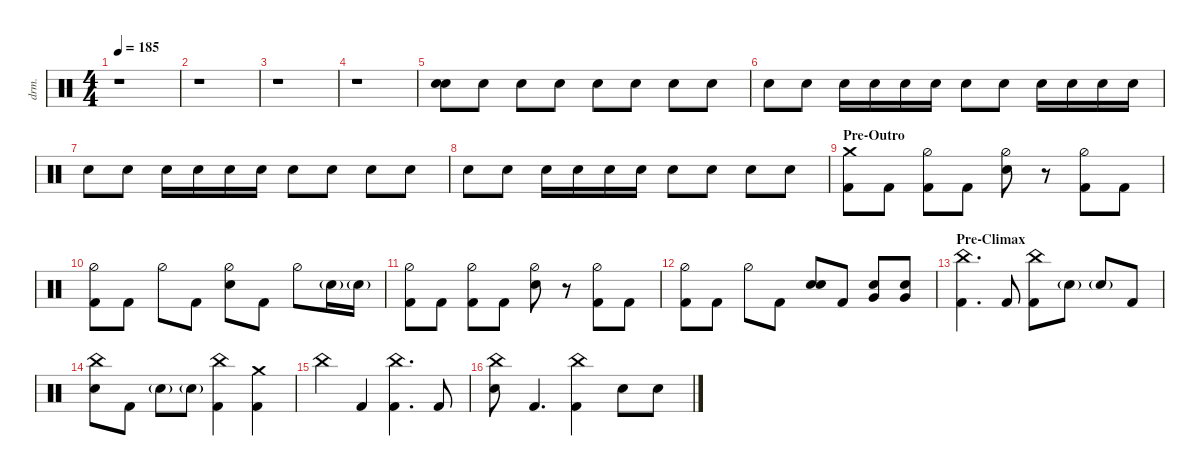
\defaultSystemsLayout 4
\hideDynamics
\bracketExtendMode nobrackets
\track ("Drums - Šimon" "drm.") {instrument percussion}
\staff {score}
\articulation defaults
\ts (4 4)
\tempo 185
\clef neutral
\ks c
r.1{dy ff} |
r.1 |
r.1 |
r.1 |
("Snare (hit) 2" "Snare (hit) 2").8{dy mf} "Snare (hit) 2".8{dy mp} "Snare (hit) 2".8 "Snare (hit) 2".8 "Snare (hit) 2".8 "Snare (hit) 2".8 "Snare (hit) 2".8 "Snare (hit) 2".8 |
"Snare (hit) 2".8 "Snare (hit) 2".8 "Snare (hit) 2".16 "Snare (hit) 2".16{dy p} "Snare (hit) 2".16 "Snare (hit) 2".16 "Snare (hit) 2".8{dy mp} "Snare (hit) 2".8 "Snare (hit) 2".16 "Snare (hit) 2".16{dy p} "Snare (hit) 2".16 "Snare (hit) 2".16 |
"Snare (hit) 2".8{dy mp} "Snare (hit) 2".8 "Snare (hit) 2".16 "Snare (hit) 2".16{dy p} "Snare (hit) 2".16 "Snare (hit) 2".16 "Snare (hit) 2".8{dy mp} "Snare (hit) 2".8 "Snare (hit) 2".8 "Snare (hit) 2".8 |
"Snare (hit) 2".8 "Snare (hit) 2".8 "Snare (hit) 2".16 "Snare (hit) 2".16{dy p} "Snare (hit) 2".16 "Snare (hit) 2".16 "Snare (hit) 2".8{dy ff} "Snare (hit) 2".8 "Snare (hit) 2".8 "Snare (hit) 2".8 |
\section ("" "Pre-Outro")
("Kick (hit) 2" "Crash medium (hit)").8 "Kick (hit) 2".8 ("Kick (hit) 2" "Hi-Hat (half)").8 "Kick (hit) 2".8 ("Hi-Hat (half)" "Snare (hit) 2").8 r.8 ("Kick (hit) 2" "Hi-Hat (half)").8 "Kick (hit) 2".8 |
("Kick (hit) 2" "Hi-Hat (half)").8 "Kick (hit) 2".8 "Hi-Hat (half)".8 "Kick (hit) 2".8 ("Snare (hit) 2" "Hi-Hat (half)").8 "Kick (hit) 2".8 "Hi-Hat (half)".8 "Snare (hit) 2"{g}.16 "Snare (hit) 2"{g}.16 |
("Kick (hit) 2" "Hi-Hat (half)").8 "Kick (hit) 2".8 ("Kick (hit) 2" "Hi-Hat (half)").8 "Kick (hit) 2".8 ("Hi-Hat (half)" "Snare (hit) 2").8 r.8 ("Kick (hit) 2" "Hi-Hat (half)").8 "Kick (hit) 2".8 |
("Kick (hit) 2" "Hi-Hat (half)").8 "Kick (hit) 2".8 "Hi-Hat (half)".8 "Kick (hit) 2".8 ("Snare (hit) 2" "Snare (hit) 2").8 "Kick (hit) 2".8 ("Snare (hit) 2" "Very Low Tom (hit)").8 ("Snare (hit) 2" "Very Low Tom (hit)").8 |
\section ("" "Pre-Climax")
("China (hit)" "Kick (hit) 2").4{d} "Kick (hit) 2".8 ("Kick (hit) 2" "China (hit)").8 "Snare (hit) 2"{g}.8{dy mp} "Snare (hit) 2"{g}.8 "Kick (hit) 2".8{dy ff} |
("Snare (hit) 2" "China (hit)").8 "Kick (hit) 2".8 "Snare (hit) 2"{g}.8{dy mp} "Snare (hit) 2"{g}.8 ("Kick (hit) 2" "China (hit)").4{dy ff} ("Kick (hit) 2" "Crash medium (hit)").4 |
"China (hit)".4 "Kick (hit) 2".4 ("Kick (hit) 2" "China (hit)").4{d} "Kick (hit) 2".8 |
("Snare (hit) 2" "China (hit)").8 "Kick (hit) 2".4{d} ("China (hit)" "Kick (hit) 2").4 "Snare (hit) 2".8 "Snare (hit) 2".8
